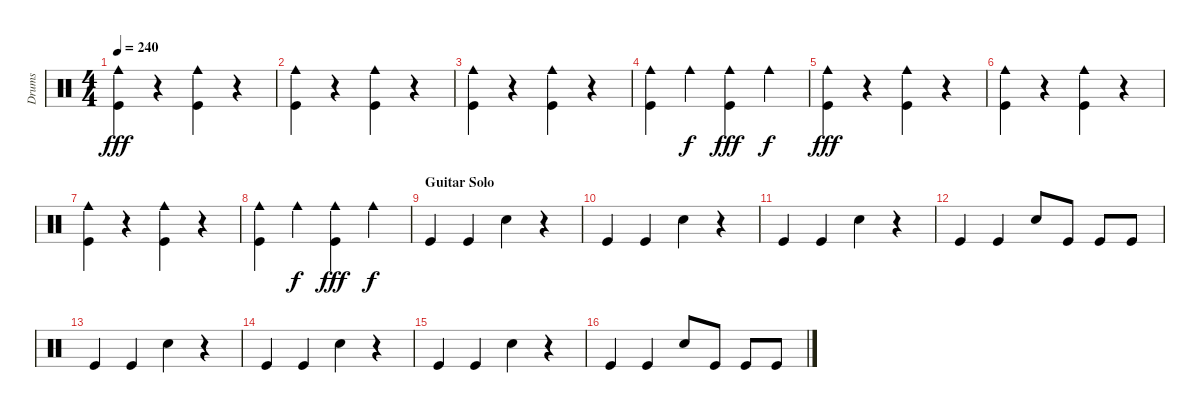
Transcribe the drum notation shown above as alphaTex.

\track ("Drums" "Drums") {instrument percussion}
\staff {score}
\articulation defaults
\ts (4 4)
\tempo 240
\clef neutral
\ks c
("Cowbell medium (hit)" "Kick (hit)").4{dy fff} r.4 ("Cowbell medium (hit)" "Kick (hit)").4 r.4 |
("Cowbell medium (hit)" "Kick (hit)").4 r.4 ("Cowbell medium (hit)" "Kick (hit)").4 r.4 |
("Cowbell medium (hit)" "Kick (hit)").4 r.4 ("Cowbell medium (hit)" "Kick (hit)").4 r.4 |
("Cowbell medium (hit)" "Kick (hit)").4 "Cowbell medium (hit)".4{dy f} ("Cowbell medium (hit)" "Kick (hit)").4{dy fff} "Cowbell medium (hit)".4{dy f} |
("Cowbell medium (hit)" "Kick (hit)").4{dy fff} r.4 ("Cowbell medium (hit)" "Kick (hit)").4 r.4 |
("Cowbell medium (hit)" "Kick (hit)").4 r.4 ("Cowbell medium (hit)" "Kick (hit)").4 r.4 |
("Cowbell medium (hit)" "Kick (hit)").4 r.4 ("Cowbell medium (hit)" "Kick (hit)").4 r.4 |
("Cowbell medium (hit)" "Kick (hit)").4 "Cowbell medium (hit)".4{dy f} ("Cowbell medium (hit)" "Kick (hit)").4{dy fff} "Cowbell medium (hit)".4{dy f} |
\section ("" "Guitar Solo")
"Kick (hit)".4 "Kick (hit)".4 "Snare (hit) 2".4 r.4 |
"Kick (hit)".4 "Kick (hit)".4 "Snare (hit) 2".4 r.4 |
"Kick (hit)".4 "Kick (hit)".4 "Snare (hit) 2".4 r.4 |
"Kick (hit)".4 "Kick (hit)".4 "Snare (hit) 2".8 "Kick (hit)".8 "Kick (hit)".8 "Kick (hit)".8 |
"Kick (hit)".4 "Kick (hit)".4 "Snare (hit) 2".4 r.4 |
"Kick (hit)".4 "Kick (hit)".4 "Snare (hit) 2".4 r.4 |
"Kick (hit)".4 "Kick (hit)".4 "Snare (hit) 2".4 r.4 |
"Kick (hit)".4 "Kick (hit)".4 "Snare (hit) 2".8 "Kick (hit)".8 "Kick (hit)".8 "Kick (hit)".8
